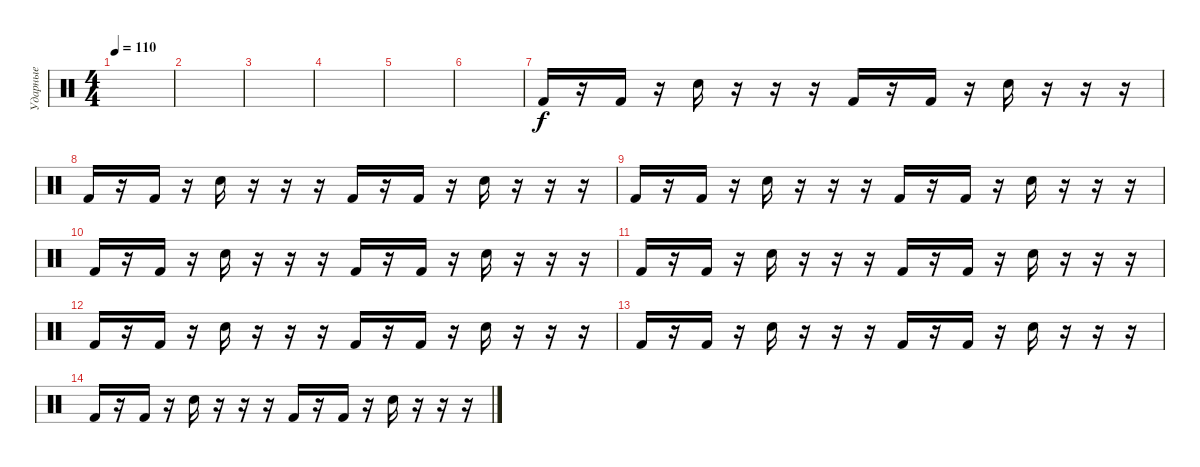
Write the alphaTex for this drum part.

\track ("Ударные" "Ударные") {instrument percussion}
\staff {score}
\articulation defaults
\ts (4 4)
\tempo 110
\clef neutral
\ks c
|
|
|
|
|
|
"Kick (hit) 2".16 r.16 "Kick (hit) 2".16 r.16 "Electric Snare (hit)".16 r.16 r.16 r.16 "Kick (hit) 2".16 r.16 "Kick (hit) 2".16 r.16 "Electric Snare (hit)".16 r.16 r.16 r.16 |
"Kick (hit) 2".16 r.16 "Kick (hit) 2".16 r.16 "Electric Snare (hit)".16 r.16 r.16 r.16 "Kick (hit) 2".16 r.16 "Kick (hit) 2".16 r.16 "Electric Snare (hit)".16 r.16 r.16 r.16 |
"Kick (hit) 2".16 r.16 "Kick (hit) 2".16 r.16 "Electric Snare (hit)".16 r.16 r.16 r.16 "Kick (hit) 2".16 r.16 "Kick (hit) 2".16 r.16 "Electric Snare (hit)".16 r.16 r.16 r.16 |
"Kick (hit) 2".16 r.16 "Kick (hit) 2".16 r.16 "Electric Snare (hit)".16 r.16 r.16 r.16 "Kick (hit) 2".16 r.16 "Kick (hit) 2".16 r.16 "Electric Snare (hit)".16 r.16 r.16 r.16 |
"Kick (hit) 2".16 r.16 "Kick (hit) 2".16 r.16 "Electric Snare (hit)".16 r.16 r.16 r.16 "Kick (hit) 2".16 r.16 "Kick (hit) 2".16 r.16 "Electric Snare (hit)".16 r.16 r.16 r.16 |
"Kick (hit) 2".16 r.16 "Kick (hit) 2".16 r.16 "Electric Snare (hit)".16 r.16 r.16 r.16 "Kick (hit) 2".16 r.16 "Kick (hit) 2".16 r.16 "Electric Snare (hit)".16 r.16 r.16 r.16 |
"Kick (hit) 2".16 r.16 "Kick (hit) 2".16 r.16 "Electric Snare (hit)".16 r.16 r.16 r.16 "Kick (hit) 2".16 r.16 "Kick (hit) 2".16 r.16 "Electric Snare (hit)".16 r.16 r.16 r.16 |
"Kick (hit) 2".16 r.16 "Kick (hit) 2".16 r.16 "Electric Snare (hit)".16 r.16 r.16 r.16 "Kick (hit) 2".16 r.16 "Kick (hit) 2".16 r.16 "Electric Snare (hit)".16 r.16 r.16 r.16
